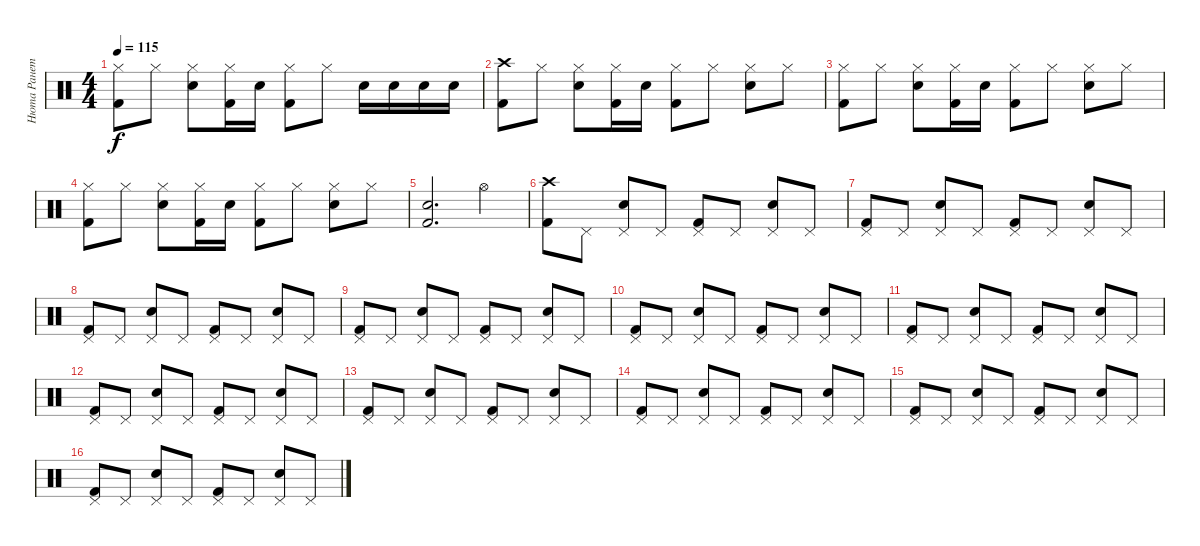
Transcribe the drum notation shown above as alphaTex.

\track ("Нюта Ранетка" "Нюта Ранет") {instrument percussion}
\staff {score}
\articulation defaults
\ts (4 4)
\tempo 115
\clef neutral
\ks c
("Hi-Hat (closed)" "Kick (hit) 2").8{dy f} "Hi-Hat (closed)".8 ("Hi-Hat (closed)" "Electric Snare (hit)").8 ("Hi-Hat (closed)" "Kick (hit) 2").16 "Electric Snare (hit)".16 ("Hi-Hat (closed)" "Kick (hit) 2").8 "Hi-Hat (closed)".8 "Electric Snare (hit)".16 "Electric Snare (hit)".16 "Electric Snare (hit)".16 "Electric Snare (hit)".16 |
("Crash high (hit)" "Kick (hit) 2").8 "Hi-Hat (closed)".8 ("Hi-Hat (closed)" "Electric Snare (hit)").8 ("Hi-Hat (closed)" "Kick (hit) 2").16 "Electric Snare (hit)".16 ("Hi-Hat (closed)" "Kick (hit) 2").8 "Hi-Hat (closed)".8 ("Hi-Hat (closed)" "Electric Snare (hit)").8 "Hi-Hat (closed)".8 |
("Hi-Hat (closed)" "Kick (hit) 2").8 "Hi-Hat (closed)".8 ("Hi-Hat (closed)" "Electric Snare (hit)").8 ("Hi-Hat (closed)" "Kick (hit) 2").16 "Electric Snare (hit)".16 ("Hi-Hat (closed)" "Kick (hit) 2").8 "Hi-Hat (closed)".8 ("Hi-Hat (closed)" "Electric Snare (hit)").8 "Hi-Hat (closed)".8 |
("Hi-Hat (closed)" "Kick (hit) 2").8 "Hi-Hat (closed)".8 ("Hi-Hat (closed)" "Electric Snare (hit)").8 ("Hi-Hat (closed)" "Kick (hit) 2").16 "Electric Snare (hit)".16 ("Hi-Hat (closed)" "Kick (hit) 2").8 "Hi-Hat (closed)".8 ("Hi-Hat (closed)" "Electric Snare (hit)").8 "Hi-Hat (closed)".8 |
("Electric Snare (hit)" "Kick (hit) 2").2{d} "Hi-Hat (open)".4 |
("Crash high (hit)" "Kick (hit) 2").8 "Pedal Hi-Hat (hit)".8 ("Pedal Hi-Hat (hit)" "Electric Snare (hit)").8 "Pedal Hi-Hat (hit)".8 ("Pedal Hi-Hat (hit)" "Kick (hit) 2").8 "Pedal Hi-Hat (hit)".8 ("Pedal Hi-Hat (hit)" "Electric Snare (hit)").8 "Pedal Hi-Hat (hit)".8 |
("Pedal Hi-Hat (hit)" "Kick (hit) 2").8 "Pedal Hi-Hat (hit)".8 ("Pedal Hi-Hat (hit)" "Electric Snare (hit)").8 "Pedal Hi-Hat (hit)".8 ("Pedal Hi-Hat (hit)" "Kick (hit) 2").8 "Pedal Hi-Hat (hit)".8 ("Pedal Hi-Hat (hit)" "Electric Snare (hit)").8 "Pedal Hi-Hat (hit)".8 |
("Pedal Hi-Hat (hit)" "Kick (hit) 2").8 "Pedal Hi-Hat (hit)".8 ("Pedal Hi-Hat (hit)" "Electric Snare (hit)").8 "Pedal Hi-Hat (hit)".8 ("Pedal Hi-Hat (hit)" "Kick (hit) 2").8 "Pedal Hi-Hat (hit)".8 ("Pedal Hi-Hat (hit)" "Electric Snare (hit)").8 "Pedal Hi-Hat (hit)".8 |
("Pedal Hi-Hat (hit)" "Kick (hit) 2").8 "Pedal Hi-Hat (hit)".8 ("Pedal Hi-Hat (hit)" "Electric Snare (hit)").8 "Pedal Hi-Hat (hit)".8 ("Pedal Hi-Hat (hit)" "Kick (hit) 2").8 "Pedal Hi-Hat (hit)".8 ("Pedal Hi-Hat (hit)" "Electric Snare (hit)").8 "Pedal Hi-Hat (hit)".8 |
("Pedal Hi-Hat (hit)" "Kick (hit) 2").8 "Pedal Hi-Hat (hit)".8 ("Pedal Hi-Hat (hit)" "Electric Snare (hit)").8 "Pedal Hi-Hat (hit)".8 ("Pedal Hi-Hat (hit)" "Kick (hit) 2").8 "Pedal Hi-Hat (hit)".8 ("Pedal Hi-Hat (hit)" "Electric Snare (hit)").8 "Pedal Hi-Hat (hit)".8 |
("Pedal Hi-Hat (hit)" "Kick (hit) 2").8 "Pedal Hi-Hat (hit)".8 ("Pedal Hi-Hat (hit)" "Electric Snare (hit)").8 "Pedal Hi-Hat (hit)".8 ("Pedal Hi-Hat (hit)" "Kick (hit) 2").8 "Pedal Hi-Hat (hit)".8 ("Pedal Hi-Hat (hit)" "Electric Snare (hit)").8 "Pedal Hi-Hat (hit)".8 |
("Pedal Hi-Hat (hit)" "Kick (hit) 2").8 "Pedal Hi-Hat (hit)".8 ("Pedal Hi-Hat (hit)" "Electric Snare (hit)").8 "Pedal Hi-Hat (hit)".8 ("Pedal Hi-Hat (hit)" "Kick (hit) 2").8 "Pedal Hi-Hat (hit)".8 ("Pedal Hi-Hat (hit)" "Electric Snare (hit)").8 "Pedal Hi-Hat (hit)".8 |
("Pedal Hi-Hat (hit)" "Kick (hit) 2").8 "Pedal Hi-Hat (hit)".8 ("Pedal Hi-Hat (hit)" "Electric Snare (hit)").8 "Pedal Hi-Hat (hit)".8 ("Pedal Hi-Hat (hit)" "Kick (hit) 2").8 "Pedal Hi-Hat (hit)".8 ("Pedal Hi-Hat (hit)" "Electric Snare (hit)").8 "Pedal Hi-Hat (hit)".8 |
("Pedal Hi-Hat (hit)" "Kick (hit) 2").8 "Pedal Hi-Hat (hit)".8 ("Pedal Hi-Hat (hit)" "Electric Snare (hit)").8 "Pedal Hi-Hat (hit)".8 ("Pedal Hi-Hat (hit)" "Kick (hit) 2").8 "Pedal Hi-Hat (hit)".8 ("Pedal Hi-Hat (hit)" "Electric Snare (hit)").8 "Pedal Hi-Hat (hit)".8 |
("Pedal Hi-Hat (hit)" "Kick (hit) 2").8 "Pedal Hi-Hat (hit)".8 ("Pedal Hi-Hat (hit)" "Electric Snare (hit)").8 "Pedal Hi-Hat (hit)".8 ("Pedal Hi-Hat (hit)" "Kick (hit) 2").8 "Pedal Hi-Hat (hit)".8 ("Pedal Hi-Hat (hit)" "Electric Snare (hit)").8 "Pedal Hi-Hat (hit)".8 |
("Pedal Hi-Hat (hit)" "Kick (hit) 2").8 "Pedal Hi-Hat (hit)".8 ("Pedal Hi-Hat (hit)" "Electric Snare (hit)").8 "Pedal Hi-Hat (hit)".8 ("Pedal Hi-Hat (hit)" "Kick (hit) 2").8 "Pedal Hi-Hat (hit)".8 ("Pedal Hi-Hat (hit)" "Electric Snare (hit)").8 "Pedal Hi-Hat (hit)".8
